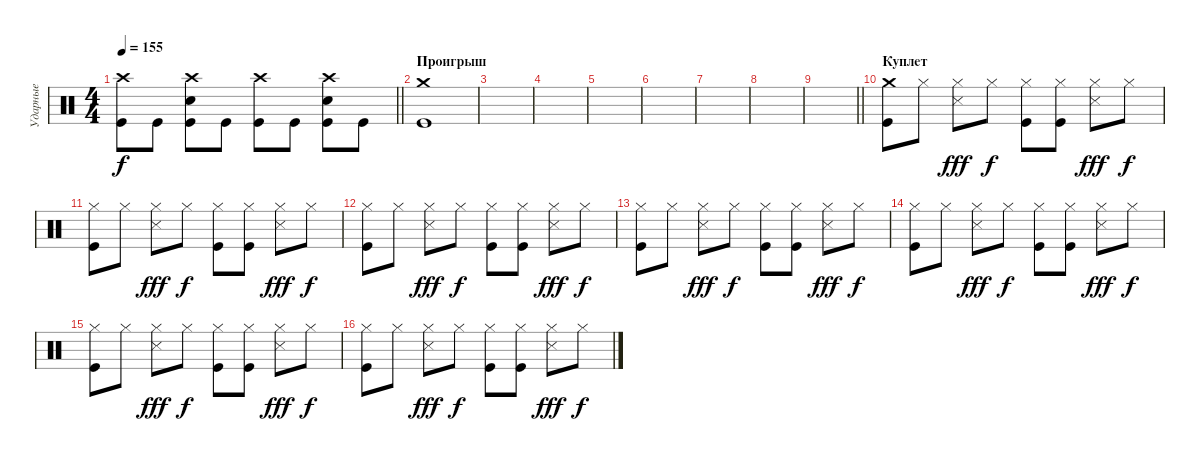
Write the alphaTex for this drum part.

\track ("Ударные" "Ударные") {instrument percussion}
\staff {score}
\articulation defaults
\ts (4 4)
\tempo 155
\clef neutral
\barLineRight lightlight
\ks c
("Crash high (hit)" "Kick (hit)").8{dy f} "Kick (hit)".8 ("Crash high (hit)" "Electric Snare (hit)" "Kick (hit)").8 "Kick (hit)".8 ("Crash high (hit)" "Kick (hit)").8 "Kick (hit)".8 ("Crash high (hit)" "Electric Snare (hit)" "Kick (hit)").8 "Kick (hit)".8 |
\section ("" "Проигрыш")
("Crash medium (hit)" "Kick (hit)").1 |
|
|
|
|
|
|
\barLineRight lightlight
|
\section ("" "Куплет")
("Crash medium (hit)" "Kick (hit)").8 "Hi-Hat (closed)".8 ("Hi-Hat (closed)" "Snare (side stick) 3").8{dy fff} "Hi-Hat (closed)".8{dy f} ("Hi-Hat (closed)" "Kick (hit)").8 ("Hi-Hat (closed)" "Kick (hit)").8 ("Hi-Hat (closed)" "Snare (side stick) 3").8{dy fff} "Hi-Hat (closed)".8{dy f} |
("Hi-Hat (closed)" "Kick (hit)").8 "Hi-Hat (closed)".8 ("Hi-Hat (closed)" "Snare (side stick) 3").8{dy fff} "Hi-Hat (closed)".8{dy f} ("Hi-Hat (closed)" "Kick (hit)").8 ("Hi-Hat (closed)" "Kick (hit)").8 ("Hi-Hat (closed)" "Snare (side stick) 3").8{dy fff} "Hi-Hat (closed)".8{dy f} |
("Hi-Hat (closed)" "Kick (hit)").8 "Hi-Hat (closed)".8 ("Hi-Hat (closed)" "Snare (side stick) 3").8{dy fff} "Hi-Hat (closed)".8{dy f} ("Hi-Hat (closed)" "Kick (hit)").8 ("Hi-Hat (closed)" "Kick (hit)").8 ("Hi-Hat (closed)" "Snare (side stick) 3").8{dy fff} "Hi-Hat (closed)".8{dy f} |
("Hi-Hat (closed)" "Kick (hit)").8 "Hi-Hat (closed)".8 ("Hi-Hat (closed)" "Snare (side stick) 3").8{dy fff} "Hi-Hat (closed)".8{dy f} ("Hi-Hat (closed)" "Kick (hit)").8 ("Hi-Hat (closed)" "Kick (hit)").8 ("Hi-Hat (closed)" "Snare (side stick) 3").8{dy fff} "Hi-Hat (closed)".8{dy f} |
("Hi-Hat (closed)" "Kick (hit)").8 "Hi-Hat (closed)".8 ("Hi-Hat (closed)" "Snare (side stick) 3").8{dy fff} "Hi-Hat (closed)".8{dy f} ("Hi-Hat (closed)" "Kick (hit)").8 ("Hi-Hat (closed)" "Kick (hit)").8 ("Hi-Hat (closed)" "Snare (side stick) 3").8{dy fff} "Hi-Hat (closed)".8{dy f} |
("Hi-Hat (closed)" "Kick (hit)").8 "Hi-Hat (closed)".8 ("Hi-Hat (closed)" "Snare (side stick) 3").8{dy fff} "Hi-Hat (closed)".8{dy f} ("Hi-Hat (closed)" "Kick (hit)").8 ("Hi-Hat (closed)" "Kick (hit)").8 ("Hi-Hat (closed)" "Snare (side stick) 3").8{dy fff} "Hi-Hat (closed)".8{dy f} |
("Hi-Hat (closed)" "Kick (hit)").8 "Hi-Hat (closed)".8 ("Hi-Hat (closed)" "Snare (side stick) 3").8{dy fff} "Hi-Hat (closed)".8{dy f} ("Hi-Hat (closed)" "Kick (hit)").8 ("Hi-Hat (closed)" "Kick (hit)").8 ("Hi-Hat (closed)" "Snare (side stick) 3").8{dy fff} "Hi-Hat (closed)".8{dy f}
